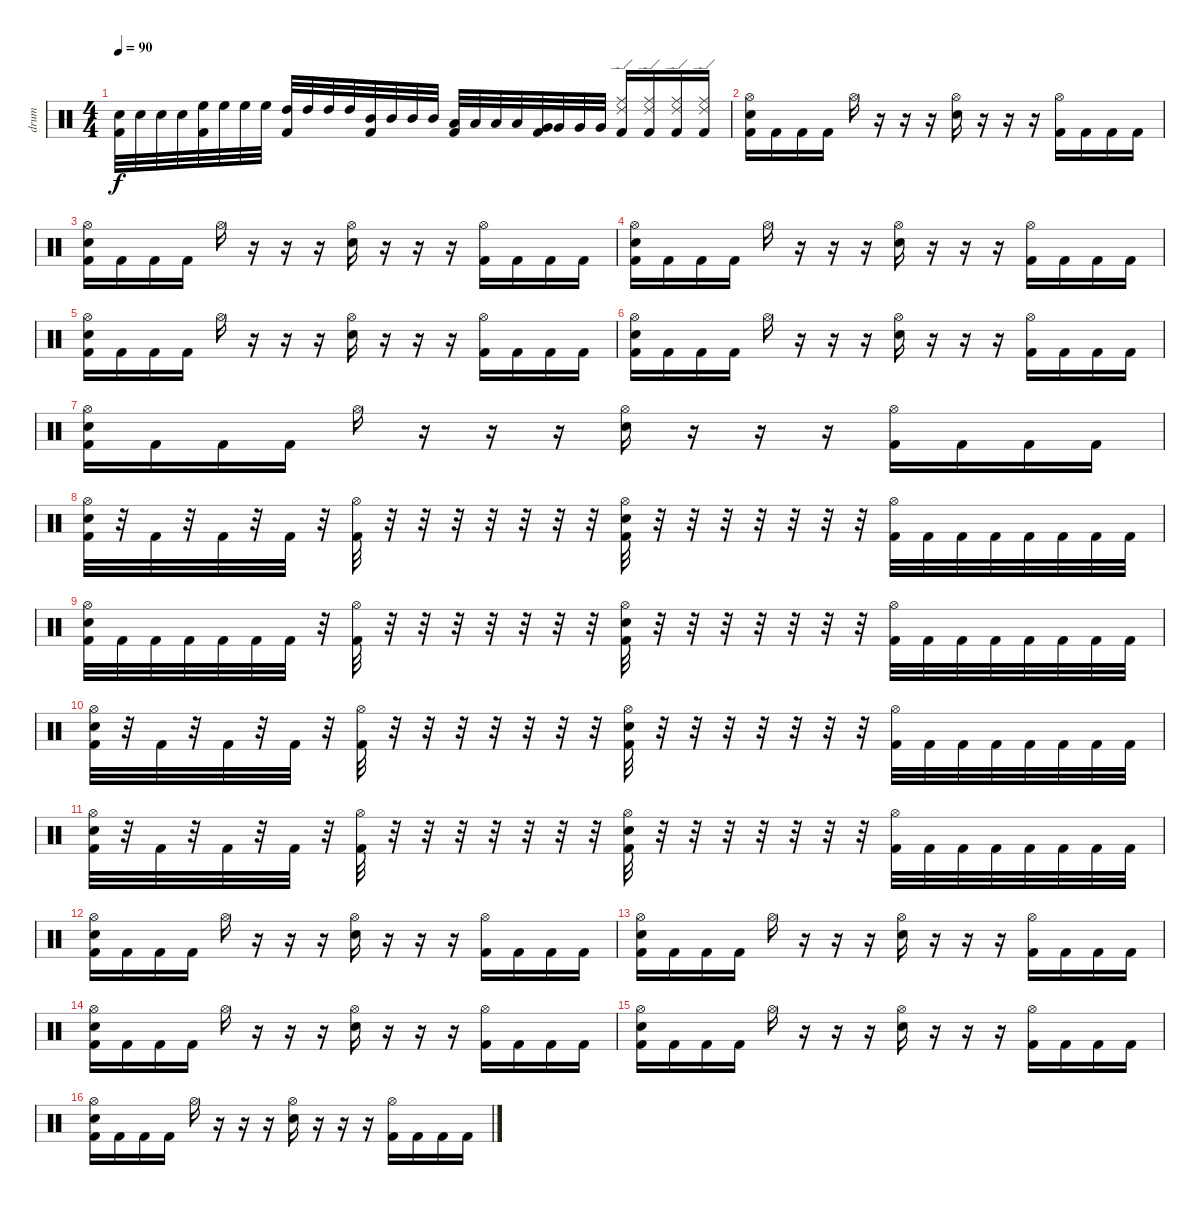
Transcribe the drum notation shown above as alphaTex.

\track ("drum" "drum") {instrument percussion}
\staff {score}
\articulation defaults
\ts (4 4)
\tempo 90
\clef neutral
\ks c
("Electric Snare (hit)" "Kick (hit) 2").32{dy f} "Electric Snare (hit)".32 "Electric Snare (hit)".32 "Electric Snare (hit)".32 ("High Floor Tom (hit)" "Kick (hit) 2").32 "High Floor Tom (hit)".32 "High Floor Tom (hit)".32 "High Floor Tom (hit)".32 ("High Tom (hit)" "Kick (hit) 2").32 "High Tom (hit)".32 "High Tom (hit)".32 "High Tom (hit)".32 ("Mid Tom (hit)" "Kick (hit) 2").32 "Mid Tom (hit)".32 "Mid Tom (hit)".32 "Mid Tom (hit)".32 ("Low Tom (hit)" "Kick (hit) 2").32 "Low Tom (hit)".32 "Low Tom (hit)".32 "Low Tom (hit)".32 ("Very Low Tom (hit)" "Kick (hit) 2").32 "Very Low Tom (hit)".32 "Very Low Tom (hit)".32 "Very Low Tom (hit)".32 ("Ride (middle)" "Ride (edge) 2" "Kick (hit) 2").16 ("Ride (middle)" "Ride (edge) 2" "Kick (hit) 2").16 ("Ride (middle)" "Ride (edge) 2" "Kick (hit) 2").16 ("Ride (middle)" "Ride (edge) 2" "Kick (hit) 2").16 |
("Hi-Hat (open)" "Electric Snare (hit)" "Kick (hit) 2").16 "Kick (hit) 2".16 "Kick (hit) 2".16 "Kick (hit) 2".16 "Hi-Hat (open)".16 r.16 r.16 r.16 ("Hi-Hat (open)" "Electric Snare (hit)").16 r.16 r.16 r.16 ("Hi-Hat (open)" "Kick (hit) 2").16 "Kick (hit) 2".16 "Kick (hit) 2".16 "Kick (hit) 2".16 |
("Hi-Hat (open)" "Electric Snare (hit)" "Kick (hit) 2").16 "Kick (hit) 2".16 "Kick (hit) 2".16 "Kick (hit) 2".16 "Hi-Hat (open)".16 r.16 r.16 r.16 ("Hi-Hat (open)" "Electric Snare (hit)").16 r.16 r.16 r.16 ("Hi-Hat (open)" "Kick (hit) 2").16 "Kick (hit) 2".16 "Kick (hit) 2".16 "Kick (hit) 2".16 |
("Hi-Hat (open)" "Electric Snare (hit)" "Kick (hit) 2").16 "Kick (hit) 2".16 "Kick (hit) 2".16 "Kick (hit) 2".16 "Hi-Hat (open)".16 r.16 r.16 r.16 ("Hi-Hat (open)" "Electric Snare (hit)").16 r.16 r.16 r.16 ("Hi-Hat (open)" "Kick (hit) 2").16 "Kick (hit) 2".16 "Kick (hit) 2".16 "Kick (hit) 2".16 |
("Hi-Hat (open)" "Electric Snare (hit)" "Kick (hit) 2").16 "Kick (hit) 2".16 "Kick (hit) 2".16 "Kick (hit) 2".16 "Hi-Hat (open)".16 r.16 r.16 r.16 ("Hi-Hat (open)" "Electric Snare (hit)").16 r.16 r.16 r.16 ("Hi-Hat (open)" "Kick (hit) 2").16 "Kick (hit) 2".16 "Kick (hit) 2".16 "Kick (hit) 2".16 |
("Hi-Hat (open)" "Electric Snare (hit)" "Kick (hit) 2").16 "Kick (hit) 2".16 "Kick (hit) 2".16 "Kick (hit) 2".16 "Hi-Hat (open)".16 r.16 r.16 r.16 ("Hi-Hat (open)" "Electric Snare (hit)").16 r.16 r.16 r.16 ("Hi-Hat (open)" "Kick (hit) 2").16 "Kick (hit) 2".16 "Kick (hit) 2".16 "Kick (hit) 2".16 |
("Hi-Hat (open)" "Electric Snare (hit)" "Kick (hit) 2").16 "Kick (hit) 2".16 "Kick (hit) 2".16 "Kick (hit) 2".16 "Hi-Hat (open)".16 r.16 r.16 r.16 ("Hi-Hat (open)" "Electric Snare (hit)").16 r.16 r.16 r.16 ("Hi-Hat (open)" "Kick (hit) 2").16 "Kick (hit) 2".16 "Kick (hit) 2".16 "Kick (hit) 2".16 |
("Hi-Hat (open)" "Electric Snare (hit)" "Kick (hit) 2").32 r.32 "Kick (hit) 2".32 r.32 "Kick (hit) 2".32 r.32 "Kick (hit) 2".32 r.32 ("Hi-Hat (open)" "Kick (hit) 2").32 r.32 r.32 r.32 r.32 r.32 r.32 r.32 ("Hi-Hat (open)" "Electric Snare (hit)" "Kick (hit) 2").32 r.32 r.32 r.32 r.32 r.32 r.32 r.32 ("Hi-Hat (open)" "Kick (hit) 2").32 "Kick (hit) 2".32 "Kick (hit) 2".32 "Kick (hit) 2".32 "Kick (hit) 2".32 "Kick (hit) 2".32 "Kick (hit) 2".32 "Kick (hit) 2".32 |
("Hi-Hat (open)" "Electric Snare (hit)" "Kick (hit) 2").32 "Kick (hit) 2".32 "Kick (hit) 2".32 "Kick (hit) 2".32 "Kick (hit) 2".32 "Kick (hit) 2".32 "Kick (hit) 2".32 r.32 ("Hi-Hat (open)" "Kick (hit) 2").32 r.32 r.32 r.32 r.32 r.32 r.32 r.32 ("Hi-Hat (open)" "Electric Snare (hit)" "Kick (hit) 2").32 r.32 r.32 r.32 r.32 r.32 r.32 r.32 ("Hi-Hat (open)" "Kick (hit) 2").32 "Kick (hit) 2".32 "Kick (hit) 2".32 "Kick (hit) 2".32 "Kick (hit) 2".32 "Kick (hit) 2".32 "Kick (hit) 2".32 "Kick (hit) 2".32 |
("Hi-Hat (open)" "Electric Snare (hit)" "Kick (hit) 2").32 r.32 "Kick (hit) 2".32 r.32 "Kick (hit) 2".32 r.32 "Kick (hit) 2".32 r.32 ("Hi-Hat (open)" "Kick (hit) 2").32 r.32 r.32 r.32 r.32 r.32 r.32 r.32 ("Hi-Hat (open)" "Electric Snare (hit)" "Kick (hit) 2").32 r.32 r.32 r.32 r.32 r.32 r.32 r.32 ("Hi-Hat (open)" "Kick (hit) 2").32 "Kick (hit) 2".32 "Kick (hit) 2".32 "Kick (hit) 2".32 "Kick (hit) 2".32 "Kick (hit) 2".32 "Kick (hit) 2".32 "Kick (hit) 2".32 |
("Hi-Hat (open)" "Electric Snare (hit)" "Kick (hit) 2").32 r.32 "Kick (hit) 2".32 r.32 "Kick (hit) 2".32 r.32 "Kick (hit) 2".32 r.32 ("Hi-Hat (open)" "Kick (hit) 2").32 r.32 r.32 r.32 r.32 r.32 r.32 r.32 ("Hi-Hat (open)" "Electric Snare (hit)" "Kick (hit) 2").32 r.32 r.32 r.32 r.32 r.32 r.32 r.32 ("Hi-Hat (open)" "Kick (hit) 2").32 "Kick (hit) 2".32 "Kick (hit) 2".32 "Kick (hit) 2".32 "Kick (hit) 2".32 "Kick (hit) 2".32 "Kick (hit) 2".32 "Kick (hit) 2".32 |
("Hi-Hat (open)" "Electric Snare (hit)" "Kick (hit) 2").16 "Kick (hit) 2".16 "Kick (hit) 2".16 "Kick (hit) 2".16 "Hi-Hat (open)".16 r.16 r.16 r.16 ("Hi-Hat (open)" "Electric Snare (hit)").16 r.16 r.16 r.16 ("Hi-Hat (open)" "Kick (hit) 2").16 "Kick (hit) 2".16 "Kick (hit) 2".16 "Kick (hit) 2".16 |
("Hi-Hat (open)" "Electric Snare (hit)" "Kick (hit) 2").16 "Kick (hit) 2".16 "Kick (hit) 2".16 "Kick (hit) 2".16 "Hi-Hat (open)".16 r.16 r.16 r.16 ("Hi-Hat (open)" "Electric Snare (hit)").16 r.16 r.16 r.16 ("Hi-Hat (open)" "Kick (hit) 2").16 "Kick (hit) 2".16 "Kick (hit) 2".16 "Kick (hit) 2".16 |
("Hi-Hat (open)" "Electric Snare (hit)" "Kick (hit) 2").16 "Kick (hit) 2".16 "Kick (hit) 2".16 "Kick (hit) 2".16 "Hi-Hat (open)".16 r.16 r.16 r.16 ("Hi-Hat (open)" "Electric Snare (hit)").16 r.16 r.16 r.16 ("Hi-Hat (open)" "Kick (hit) 2").16 "Kick (hit) 2".16 "Kick (hit) 2".16 "Kick (hit) 2".16 |
("Hi-Hat (open)" "Electric Snare (hit)" "Kick (hit) 2").16 "Kick (hit) 2".16 "Kick (hit) 2".16 "Kick (hit) 2".16 "Hi-Hat (open)".16 r.16 r.16 r.16 ("Hi-Hat (open)" "Electric Snare (hit)").16 r.16 r.16 r.16 ("Hi-Hat (open)" "Kick (hit) 2").16 "Kick (hit) 2".16 "Kick (hit) 2".16 "Kick (hit) 2".16 |
("Hi-Hat (open)" "Electric Snare (hit)" "Kick (hit) 2").16 "Kick (hit) 2".16 "Kick (hit) 2".16 "Kick (hit) 2".16 "Hi-Hat (open)".16 r.16 r.16 r.16 ("Hi-Hat (open)" "Electric Snare (hit)").16 r.16 r.16 r.16 ("Hi-Hat (open)" "Kick (hit) 2").16 "Kick (hit) 2".16 "Kick (hit) 2".16 "Kick (hit) 2".16
